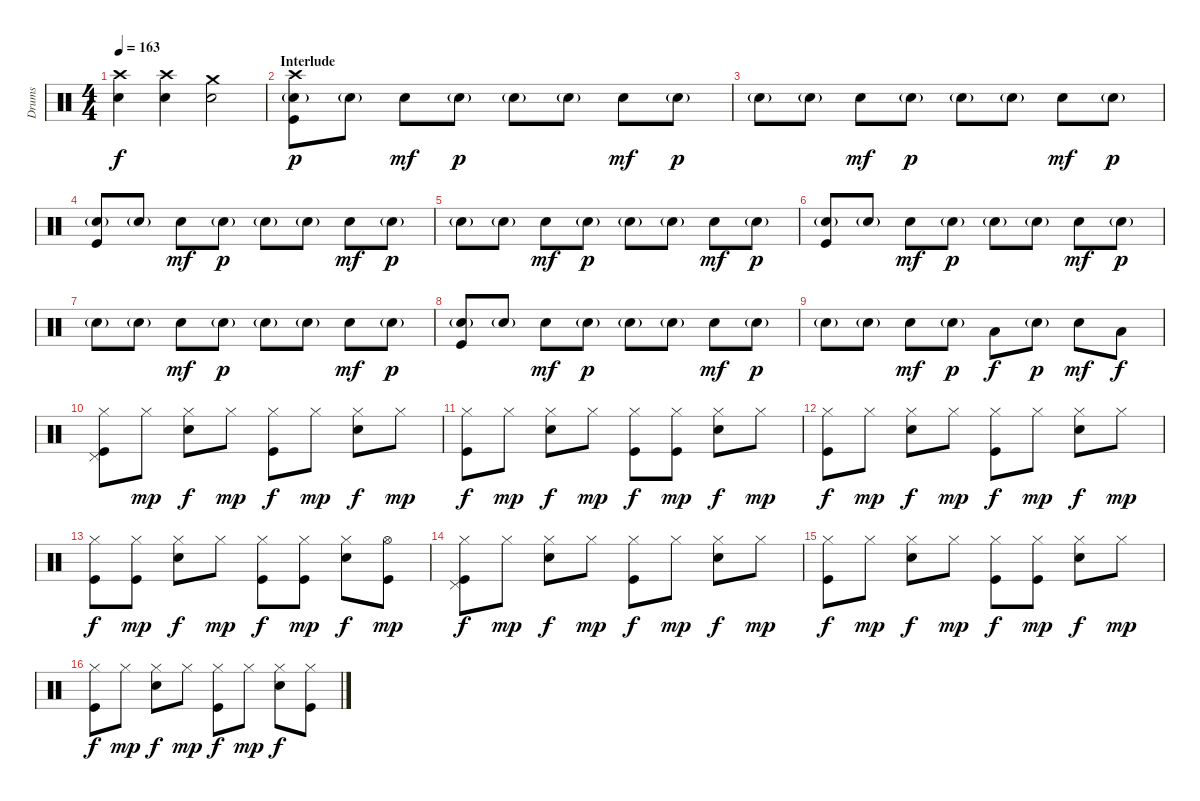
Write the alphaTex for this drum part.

\track ("Drums" "Drums") {instrument percussion}
\staff {score}
\articulation defaults
\ts (4 4)
\tempo 163
\clef neutral
\ks c
("Crash high (hit)" "Electric Snare (hit)").4{dy f} ("Crash high (hit)" "Electric Snare (hit)").4 ("Crash medium (hit)" "Electric Snare (hit)").2 |
\section ("" "Interlude")
("Crash high (hit)" "Electric Snare (hit)"{g} "Kick (hit)").8{dy p} "Electric Snare (hit)"{g}.8 "Electric Snare (hit)".8{dy mf} "Electric Snare (hit)"{g}.8{dy p} "Electric Snare (hit)"{g}.8 "Electric Snare (hit)"{g}.8 "Electric Snare (hit)".8{dy mf} "Electric Snare (hit)"{g}.8{dy p} |
"Electric Snare (hit)"{g}.8 "Electric Snare (hit)"{g}.8 "Electric Snare (hit)".8{dy mf} "Electric Snare (hit)"{g}.8{dy p} "Electric Snare (hit)"{g}.8 "Electric Snare (hit)"{g}.8 "Electric Snare (hit)".8{dy mf} "Electric Snare (hit)"{g}.8{dy p} |
("Electric Snare (hit)"{g} "Kick (hit)").8 "Electric Snare (hit)"{g}.8 "Electric Snare (hit)".8{dy mf} "Electric Snare (hit)"{g}.8{dy p} "Electric Snare (hit)"{g}.8 "Electric Snare (hit)"{g}.8 "Electric Snare (hit)".8{dy mf} "Electric Snare (hit)"{g}.8{dy p} |
"Electric Snare (hit)"{g}.8 "Electric Snare (hit)"{g}.8 "Electric Snare (hit)".8{dy mf} "Electric Snare (hit)"{g}.8{dy p} "Electric Snare (hit)"{g}.8 "Electric Snare (hit)"{g}.8 "Electric Snare (hit)".8{dy mf} "Electric Snare (hit)"{g}.8{dy p} |
("Electric Snare (hit)"{g} "Kick (hit)").8 "Electric Snare (hit)"{g}.8 "Electric Snare (hit)".8{dy mf} "Electric Snare (hit)"{g}.8{dy p} "Electric Snare (hit)"{g}.8 "Electric Snare (hit)"{g}.8 "Electric Snare (hit)".8{dy mf} "Electric Snare (hit)"{g}.8{dy p} |
"Electric Snare (hit)"{g}.8 "Electric Snare (hit)"{g}.8 "Electric Snare (hit)".8{dy mf} "Electric Snare (hit)"{g}.8{dy p} "Electric Snare (hit)"{g}.8 "Electric Snare (hit)"{g}.8 "Electric Snare (hit)".8{dy mf} "Electric Snare (hit)"{g}.8{dy p} |
("Electric Snare (hit)"{g} "Kick (hit)").8 "Electric Snare (hit)"{g}.8 "Electric Snare (hit)".8{dy mf} "Electric Snare (hit)"{g}.8{dy p} "Electric Snare (hit)"{g}.8 "Electric Snare (hit)"{g}.8 "Electric Snare (hit)".8{dy mf} "Electric Snare (hit)"{g}.8{dy p} |
"Electric Snare (hit)"{g}.8 "Electric Snare (hit)"{g}.8 "Electric Snare (hit)".8{dy mf} "Electric Snare (hit)"{g}.8{dy p} "Low Tom (hit)".8{dy f} "Electric Snare (hit)"{g}.8{dy p} "Electric Snare (hit)".8{dy mf} "Low Tom (hit)".8{dy f} |
("Hi-Hat (closed)" "Pedal Hi-Hat (hit)" "Kick (hit)").8 "Hi-Hat (closed)".8{dy mp} ("Hi-Hat (closed)" "Electric Snare (hit)").8{dy f} "Hi-Hat (closed)".8{dy mp} ("Hi-Hat (closed)" "Kick (hit)").8{dy f} "Hi-Hat (closed)".8{dy mp} ("Hi-Hat (closed)" "Electric Snare (hit)").8{dy f} "Hi-Hat (closed)".8{dy mp} |
("Hi-Hat (closed)" "Kick (hit)").8{dy f} "Hi-Hat (closed)".8{dy mp} ("Hi-Hat (closed)" "Electric Snare (hit)").8{dy f} "Hi-Hat (closed)".8{dy mp} ("Hi-Hat (closed)" "Kick (hit)").8{dy f} ("Hi-Hat (closed)" "Kick (hit)").8{dy mp} ("Hi-Hat (closed)" "Electric Snare (hit)").8{dy f} "Hi-Hat (closed)".8{dy mp} |
("Hi-Hat (closed)" "Kick (hit)").8{dy f} "Hi-Hat (closed)".8{dy mp} ("Hi-Hat (closed)" "Electric Snare (hit)").8{dy f} "Hi-Hat (closed)".8{dy mp} ("Hi-Hat (closed)" "Kick (hit)").8{dy f} "Hi-Hat (closed)".8{dy mp} ("Hi-Hat (closed)" "Electric Snare (hit)").8{dy f} "Hi-Hat (closed)".8{dy mp} |
("Hi-Hat (closed)" "Kick (hit)").8{dy f} ("Hi-Hat (closed)" "Kick (hit)").8{dy mp} ("Hi-Hat (closed)" "Electric Snare (hit)").8{dy f} "Hi-Hat (closed)".8{dy mp} ("Hi-Hat (closed)" "Kick (hit)").8{dy f} ("Hi-Hat (closed)" "Kick (hit)").8{dy mp} ("Hi-Hat (closed)" "Electric Snare (hit)").8{dy f} ("Hi-Hat (open)" "Kick (hit)").8{dy mp} |
("Hi-Hat (closed)" "Pedal Hi-Hat (hit)" "Kick (hit)").8{dy f} "Hi-Hat (closed)".8{dy mp} ("Hi-Hat (closed)" "Electric Snare (hit)").8{dy f} "Hi-Hat (closed)".8{dy mp} ("Hi-Hat (closed)" "Kick (hit)").8{dy f} "Hi-Hat (closed)".8{dy mp} ("Hi-Hat (closed)" "Electric Snare (hit)").8{dy f} "Hi-Hat (closed)".8{dy mp} |
("Hi-Hat (closed)" "Kick (hit)").8{dy f} "Hi-Hat (closed)".8{dy mp} ("Hi-Hat (closed)" "Electric Snare (hit)").8{dy f} "Hi-Hat (closed)".8{dy mp} ("Hi-Hat (closed)" "Kick (hit)").8{dy f} ("Hi-Hat (closed)" "Kick (hit)").8{dy mp} ("Hi-Hat (closed)" "Electric Snare (hit)").8{dy f} "Hi-Hat (closed)".8{dy mp} |
("Hi-Hat (closed)" "Kick (hit)").8{dy f} "Hi-Hat (closed)".8{dy mp} ("Hi-Hat (closed)" "Electric Snare (hit)").8{dy f} "Hi-Hat (closed)".8{dy mp} ("Hi-Hat (closed)" "Kick (hit)").8{dy f} "Hi-Hat (closed)".8{dy mp} ("Hi-Hat (closed)" "Electric Snare (hit)").8{dy f} ("Hi-Hat (closed)" "Kick (hit)").8
